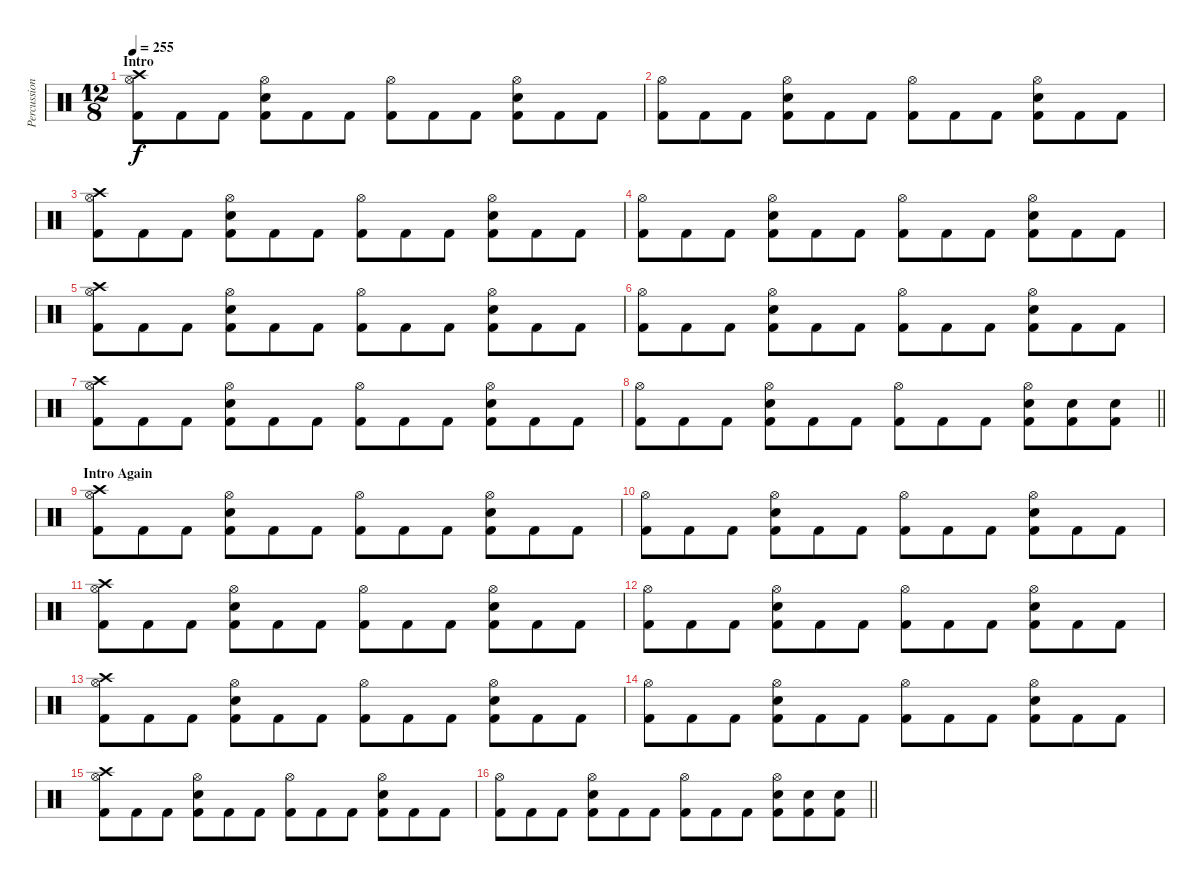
\track ("Percussion" "Percussion") {instrument percussion}
\staff {score}
\articulation defaults
\ts (12 8)
\section ("" "Intro")
\tempo 255
\clef neutral
\ks c
("Crash high (hit)" "Hi-Hat (open)" "Kick (hit) 2").8{dy f} "Kick (hit) 2".8 "Kick (hit) 2".8 ("Hi-Hat (open)" "Snare (hit) 2" "Kick (hit) 2").8 "Kick (hit) 2".8 "Kick (hit) 2".8 ("Hi-Hat (open)" "Kick (hit) 2").8 "Kick (hit) 2".8 "Kick (hit) 2".8 ("Hi-Hat (open)" "Snare (hit) 2" "Kick (hit) 2").8 "Kick (hit) 2".8 "Kick (hit) 2".8 |
("Hi-Hat (open)" "Kick (hit) 2").8 "Kick (hit) 2".8 "Kick (hit) 2".8 ("Hi-Hat (open)" "Snare (hit) 2" "Kick (hit) 2").8 "Kick (hit) 2".8 "Kick (hit) 2".8 ("Hi-Hat (open)" "Kick (hit) 2").8 "Kick (hit) 2".8 "Kick (hit) 2".8 ("Hi-Hat (open)" "Snare (hit) 2" "Kick (hit) 2").8 "Kick (hit) 2".8 "Kick (hit) 2".8 |
("Crash high (hit)" "Hi-Hat (open)" "Kick (hit) 2").8 "Kick (hit) 2".8 "Kick (hit) 2".8 ("Hi-Hat (open)" "Snare (hit) 2" "Kick (hit) 2").8 "Kick (hit) 2".8 "Kick (hit) 2".8 ("Hi-Hat (open)" "Kick (hit) 2").8 "Kick (hit) 2".8 "Kick (hit) 2".8 ("Hi-Hat (open)" "Snare (hit) 2" "Kick (hit) 2").8 "Kick (hit) 2".8 "Kick (hit) 2".8 |
("Hi-Hat (open)" "Kick (hit) 2").8 "Kick (hit) 2".8 "Kick (hit) 2".8 ("Hi-Hat (open)" "Snare (hit) 2" "Kick (hit) 2").8 "Kick (hit) 2".8 "Kick (hit) 2".8 ("Hi-Hat (open)" "Kick (hit) 2").8 "Kick (hit) 2".8 "Kick (hit) 2".8 ("Hi-Hat (open)" "Snare (hit) 2" "Kick (hit) 2").8 "Kick (hit) 2".8 "Kick (hit) 2".8 |
("Crash high (hit)" "Hi-Hat (open)" "Kick (hit) 2").8 "Kick (hit) 2".8 "Kick (hit) 2".8 ("Hi-Hat (open)" "Snare (hit) 2" "Kick (hit) 2").8 "Kick (hit) 2".8 "Kick (hit) 2".8 ("Hi-Hat (open)" "Kick (hit) 2").8 "Kick (hit) 2".8 "Kick (hit) 2".8 ("Hi-Hat (open)" "Snare (hit) 2" "Kick (hit) 2").8 "Kick (hit) 2".8 "Kick (hit) 2".8 |
("Hi-Hat (open)" "Kick (hit) 2").8 "Kick (hit) 2".8 "Kick (hit) 2".8 ("Hi-Hat (open)" "Snare (hit) 2" "Kick (hit) 2").8 "Kick (hit) 2".8 "Kick (hit) 2".8 ("Hi-Hat (open)" "Kick (hit) 2").8 "Kick (hit) 2".8 "Kick (hit) 2".8 ("Hi-Hat (open)" "Snare (hit) 2" "Kick (hit) 2").8 "Kick (hit) 2".8 "Kick (hit) 2".8 |
("Crash high (hit)" "Hi-Hat (open)" "Kick (hit) 2").8 "Kick (hit) 2".8 "Kick (hit) 2".8 ("Hi-Hat (open)" "Snare (hit) 2" "Kick (hit) 2").8 "Kick (hit) 2".8 "Kick (hit) 2".8 ("Hi-Hat (open)" "Kick (hit) 2").8 "Kick (hit) 2".8 "Kick (hit) 2".8 ("Hi-Hat (open)" "Snare (hit) 2" "Kick (hit) 2").8 "Kick (hit) 2".8 "Kick (hit) 2".8 |
\barLineRight lightlight
("Hi-Hat (open)" "Kick (hit) 2").8 "Kick (hit) 2".8 "Kick (hit) 2".8 ("Hi-Hat (open)" "Snare (hit) 2" "Kick (hit) 2").8 "Kick (hit) 2".8 "Kick (hit) 2".8 ("Hi-Hat (open)" "Kick (hit) 2").8 "Kick (hit) 2".8 "Kick (hit) 2".8 ("Hi-Hat (open)" "Snare (hit) 2" "Kick (hit) 2").8 ("Snare (hit) 2" "Kick (hit) 2").8 ("Snare (hit) 2" "Kick (hit) 2").8 |
\section ("" "Intro Again")
("Crash high (hit)" "Hi-Hat (open)" "Kick (hit) 2").8 "Kick (hit) 2".8 "Kick (hit) 2".8 ("Hi-Hat (open)" "Snare (hit) 2" "Kick (hit) 2").8 "Kick (hit) 2".8 "Kick (hit) 2".8 ("Hi-Hat (open)" "Kick (hit) 2").8 "Kick (hit) 2".8 "Kick (hit) 2".8 ("Hi-Hat (open)" "Snare (hit) 2" "Kick (hit) 2").8 "Kick (hit) 2".8 "Kick (hit) 2".8 |
("Hi-Hat (open)" "Kick (hit) 2").8 "Kick (hit) 2".8 "Kick (hit) 2".8 ("Hi-Hat (open)" "Snare (hit) 2" "Kick (hit) 2").8 "Kick (hit) 2".8 "Kick (hit) 2".8 ("Hi-Hat (open)" "Kick (hit) 2").8 "Kick (hit) 2".8 "Kick (hit) 2".8 ("Hi-Hat (open)" "Snare (hit) 2" "Kick (hit) 2").8 "Kick (hit) 2".8 "Kick (hit) 2".8 |
("Crash high (hit)" "Hi-Hat (open)" "Kick (hit) 2").8 "Kick (hit) 2".8 "Kick (hit) 2".8 ("Hi-Hat (open)" "Snare (hit) 2" "Kick (hit) 2").8 "Kick (hit) 2".8 "Kick (hit) 2".8 ("Hi-Hat (open)" "Kick (hit) 2").8 "Kick (hit) 2".8 "Kick (hit) 2".8 ("Hi-Hat (open)" "Snare (hit) 2" "Kick (hit) 2").8 "Kick (hit) 2".8 "Kick (hit) 2".8 |
("Hi-Hat (open)" "Kick (hit) 2").8 "Kick (hit) 2".8 "Kick (hit) 2".8 ("Hi-Hat (open)" "Snare (hit) 2" "Kick (hit) 2").8 "Kick (hit) 2".8 "Kick (hit) 2".8 ("Hi-Hat (open)" "Kick (hit) 2").8 "Kick (hit) 2".8 "Kick (hit) 2".8 ("Hi-Hat (open)" "Snare (hit) 2" "Kick (hit) 2").8 "Kick (hit) 2".8 "Kick (hit) 2".8 |
("Crash high (hit)" "Hi-Hat (open)" "Kick (hit) 2").8 "Kick (hit) 2".8 "Kick (hit) 2".8 ("Hi-Hat (open)" "Snare (hit) 2" "Kick (hit) 2").8 "Kick (hit) 2".8 "Kick (hit) 2".8 ("Hi-Hat (open)" "Kick (hit) 2").8 "Kick (hit) 2".8 "Kick (hit) 2".8 ("Hi-Hat (open)" "Snare (hit) 2" "Kick (hit) 2").8 "Kick (hit) 2".8 "Kick (hit) 2".8 |
("Hi-Hat (open)" "Kick (hit) 2").8 "Kick (hit) 2".8 "Kick (hit) 2".8 ("Hi-Hat (open)" "Snare (hit) 2" "Kick (hit) 2").8 "Kick (hit) 2".8 "Kick (hit) 2".8 ("Hi-Hat (open)" "Kick (hit) 2").8 "Kick (hit) 2".8 "Kick (hit) 2".8 ("Hi-Hat (open)" "Snare (hit) 2" "Kick (hit) 2").8 "Kick (hit) 2".8 "Kick (hit) 2".8 |
("Crash high (hit)" "Hi-Hat (open)" "Kick (hit) 2").8 "Kick (hit) 2".8 "Kick (hit) 2".8 ("Hi-Hat (open)" "Snare (hit) 2" "Kick (hit) 2").8 "Kick (hit) 2".8 "Kick (hit) 2".8 ("Hi-Hat (open)" "Kick (hit) 2").8 "Kick (hit) 2".8 "Kick (hit) 2".8 ("Hi-Hat (open)" "Snare (hit) 2" "Kick (hit) 2").8 "Kick (hit) 2".8 "Kick (hit) 2".8 |
\barLineRight lightlight
("Hi-Hat (open)" "Kick (hit) 2").8 "Kick (hit) 2".8 "Kick (hit) 2".8 ("Hi-Hat (open)" "Snare (hit) 2" "Kick (hit) 2").8 "Kick (hit) 2".8 "Kick (hit) 2".8 ("Hi-Hat (open)" "Kick (hit) 2").8 "Kick (hit) 2".8 "Kick (hit) 2".8 ("Hi-Hat (open)" "Snare (hit) 2" "Kick (hit) 2").8 ("Snare (hit) 2" "Kick (hit) 2").8 ("Snare (hit) 2" "Kick (hit) 2").8
